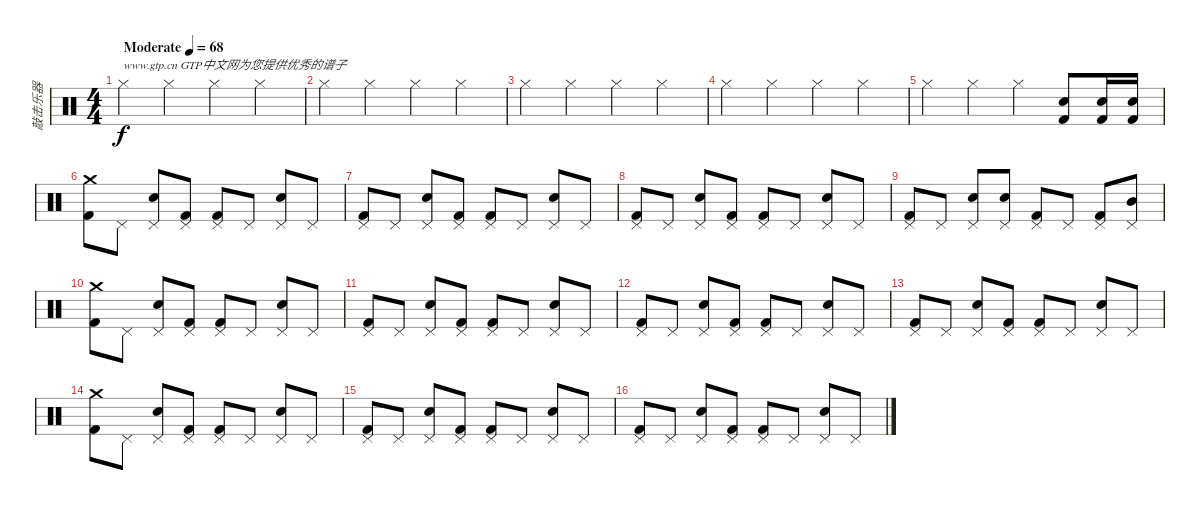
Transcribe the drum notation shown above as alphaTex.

\track ("敲击乐器" "敲击乐器") {instrument percussion}
\staff {score}
\articulation defaults
\ts (4 4)
\tempo (68 "Moderate")
\clef neutral
\ks c "Hi-Hat (closed)".4{txt "www.gtp.cn GTP中文网为您提供优秀的谱子" dy f} "Hi-Hat (closed)".4 "Hi-Hat (closed)".4 "Hi-Hat (closed)".4
|
"Hi-Hat (closed)".4 "Hi-Hat (closed)".4 "Hi-Hat (closed)".4 "Hi-Hat (closed)".4 |
"Hi-Hat (closed)".4 "Hi-Hat (closed)".4 "Hi-Hat (closed)".4 "Hi-Hat (closed)".4 |
"Hi-Hat (closed)".4 "Hi-Hat (closed)".4 "Hi-Hat (closed)".4 "Hi-Hat (closed)".4 |
"Hi-Hat (closed)".4 "Hi-Hat (closed)".4 "Hi-Hat (closed)".4 ("Kick (hit) 2" "Snare (hit) 2").8 ("Kick (hit) 2" "Snare (hit) 2").16 ("Kick (hit) 2" "Snare (hit) 2").16 |
("Crash medium (hit)" "Kick (hit) 2").8 "Pedal Hi-Hat (hit)".8 ("Pedal Hi-Hat (hit)" "Snare (hit) 2").8 ("Pedal Hi-Hat (hit)" "Kick (hit) 2").8 ("Pedal Hi-Hat (hit)" "Kick (hit) 2").8 "Pedal Hi-Hat (hit)".8 ("Pedal Hi-Hat (hit)" "Snare (hit) 2").8 "Pedal Hi-Hat (hit)".8 |
("Pedal Hi-Hat (hit)" "Kick (hit) 2").8 "Pedal Hi-Hat (hit)".8 ("Pedal Hi-Hat (hit)" "Snare (hit) 2").8 ("Pedal Hi-Hat (hit)" "Kick (hit) 2").8 ("Pedal Hi-Hat (hit)" "Kick (hit) 2").8 "Pedal Hi-Hat (hit)".8 ("Pedal Hi-Hat (hit)" "Snare (hit) 2").8 "Pedal Hi-Hat (hit)".8 |
("Pedal Hi-Hat (hit)" "Kick (hit) 2").8 "Pedal Hi-Hat (hit)".8 ("Pedal Hi-Hat (hit)" "Snare (hit) 2").8 ("Pedal Hi-Hat (hit)" "Kick (hit) 2").8 ("Pedal Hi-Hat (hit)" "Kick (hit) 2").8 "Pedal Hi-Hat (hit)".8 ("Pedal Hi-Hat (hit)" "Snare (hit) 2").8 "Pedal Hi-Hat (hit)".8 |
("Pedal Hi-Hat (hit)" "Kick (hit) 2").8 "Pedal Hi-Hat (hit)".8 ("Pedal Hi-Hat (hit)" "Snare (hit) 2").8 ("Pedal Hi-Hat (hit)" "Snare (hit) 2").8 ("Pedal Hi-Hat (hit)" "Kick (hit) 2").8 "Pedal Hi-Hat (hit)".8 ("Pedal Hi-Hat (hit)" "Kick (hit) 2").8 ("Pedal Hi-Hat (hit)" "Mid Tom (hit)").8 |
("Crash medium (hit)" "Kick (hit) 2").8 "Pedal Hi-Hat (hit)".8 ("Pedal Hi-Hat (hit)" "Snare (hit) 2").8 ("Pedal Hi-Hat (hit)" "Kick (hit) 2").8 ("Pedal Hi-Hat (hit)" "Kick (hit) 2").8 "Pedal Hi-Hat (hit)".8 ("Pedal Hi-Hat (hit)" "Snare (hit) 2").8 "Pedal Hi-Hat (hit)".8 |
("Pedal Hi-Hat (hit)" "Kick (hit) 2").8 "Pedal Hi-Hat (hit)".8 ("Pedal Hi-Hat (hit)" "Snare (hit) 2").8 ("Pedal Hi-Hat (hit)" "Kick (hit) 2").8 ("Pedal Hi-Hat (hit)" "Kick (hit) 2").8 "Pedal Hi-Hat (hit)".8 ("Pedal Hi-Hat (hit)" "Snare (hit) 2").8 "Pedal Hi-Hat (hit)".8 |
("Pedal Hi-Hat (hit)" "Kick (hit) 2").8 "Pedal Hi-Hat (hit)".8 ("Pedal Hi-Hat (hit)" "Snare (hit) 2").8 ("Pedal Hi-Hat (hit)" "Kick (hit) 2").8 ("Pedal Hi-Hat (hit)" "Kick (hit) 2").8 "Pedal Hi-Hat (hit)".8 ("Pedal Hi-Hat (hit)" "Snare (hit) 2").8 "Pedal Hi-Hat (hit)".8 |
("Pedal Hi-Hat (hit)" "Kick (hit) 2").8 "Pedal Hi-Hat (hit)".8 ("Pedal Hi-Hat (hit)" "Snare (hit) 2").8 ("Pedal Hi-Hat (hit)" "Kick (hit) 2").8 ("Pedal Hi-Hat (hit)" "Kick (hit) 2").8 "Pedal Hi-Hat (hit)".8 ("Pedal Hi-Hat (hit)" "Snare (hit) 2").8 "Pedal Hi-Hat (hit)".8 |
("Crash medium (hit)" "Kick (hit) 2").8 "Pedal Hi-Hat (hit)".8 ("Pedal Hi-Hat (hit)" "Snare (hit) 2").8 ("Pedal Hi-Hat (hit)" "Kick (hit) 2").8 ("Pedal Hi-Hat (hit)" "Kick (hit) 2").8 "Pedal Hi-Hat (hit)".8 ("Pedal Hi-Hat (hit)" "Snare (hit) 2").8 "Pedal Hi-Hat (hit)".8 |
("Pedal Hi-Hat (hit)" "Kick (hit) 2").8 "Pedal Hi-Hat (hit)".8 ("Pedal Hi-Hat (hit)" "Snare (hit) 2").8 ("Pedal Hi-Hat (hit)" "Kick (hit) 2").8 ("Pedal Hi-Hat (hit)" "Kick (hit) 2").8 "Pedal Hi-Hat (hit)".8 ("Pedal Hi-Hat (hit)" "Snare (hit) 2").8 "Pedal Hi-Hat (hit)".8 |
("Pedal Hi-Hat (hit)" "Kick (hit) 2").8 "Pedal Hi-Hat (hit)".8 ("Pedal Hi-Hat (hit)" "Snare (hit) 2").8 ("Pedal Hi-Hat (hit)" "Kick (hit) 2").8 ("Pedal Hi-Hat (hit)" "Kick (hit) 2").8 "Pedal Hi-Hat (hit)".8 ("Pedal Hi-Hat (hit)" "Snare (hit) 2").8 "Pedal Hi-Hat (hit)".8
